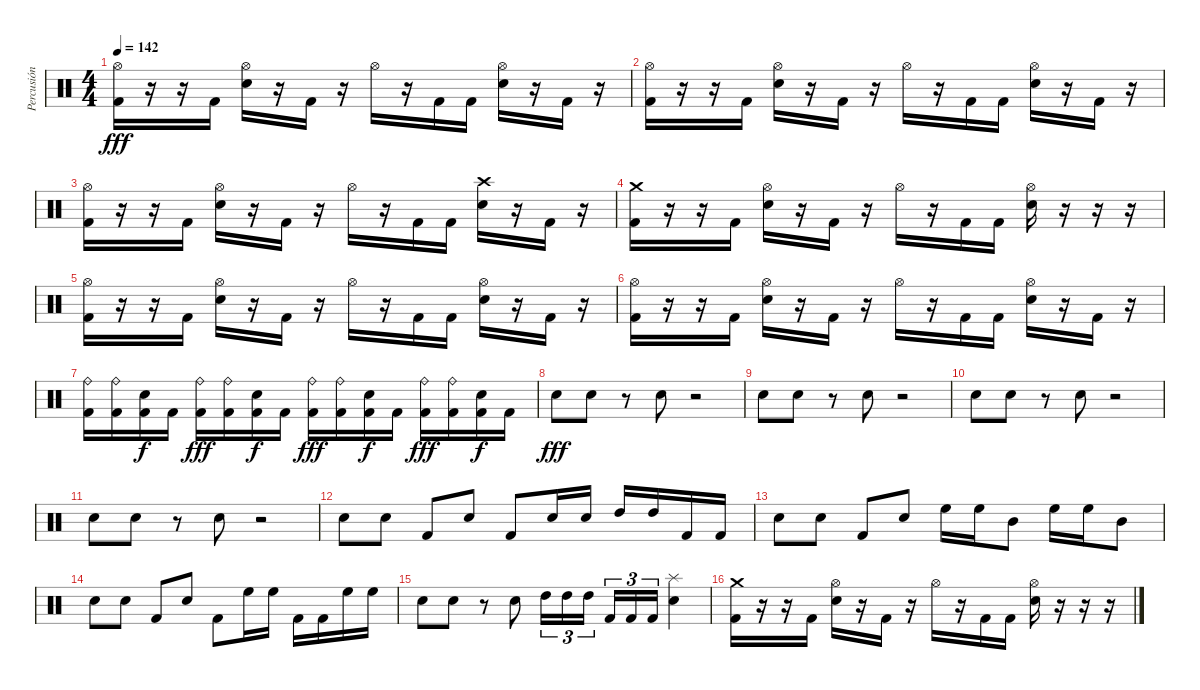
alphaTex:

\track ("Percusión" "Percusión") {instrument percussion}
\staff {score}
\articulation defaults
\ts (4 4)
\tempo 142
\clef neutral
\ks c
("Hi-Hat (open)" "Kick (hit) 2").16{dy fff} r.16 r.16 "Kick (hit) 2".16 ("Hi-Hat (open)" "Electric Snare (hit)").16 r.16 "Kick (hit) 2".16 r.16 "Hi-Hat (open)".16 r.16 "Kick (hit) 2".16 "Kick (hit) 2".16 ("Hi-Hat (open)" "Electric Snare (hit)").16 r.16 "Kick (hit) 2".16 r.16 |
("Hi-Hat (open)" "Kick (hit) 2").16 r.16 r.16 "Kick (hit) 2".16 ("Hi-Hat (open)" "Electric Snare (hit)").16 r.16 "Kick (hit) 2".16 r.16 "Hi-Hat (open)".16 r.16 "Kick (hit) 2".16 "Kick (hit) 2".16 ("Hi-Hat (open)" "Electric Snare (hit)").16 r.16 "Kick (hit) 2".16 r.16 |
("Hi-Hat (open)" "Kick (hit) 2").16 r.16 r.16 "Kick (hit) 2".16 ("Hi-Hat (open)" "Electric Snare (hit)").16 r.16 "Kick (hit) 2".16 r.16 "Hi-Hat (open)".16 r.16 "Kick (hit) 2".16 "Kick (hit) 2".16 ("Crash high (hit)" "Electric Snare (hit)").16 r.16 "Kick (hit) 2".16 r.16 |
("Crash medium (hit)" "Kick (hit) 2").16 r.16 r.16 "Kick (hit) 2".16 ("Hi-Hat (open)" "Electric Snare (hit)").16 r.16 "Kick (hit) 2".16 r.16 "Hi-Hat (open)".16 r.16 "Kick (hit) 2".16 "Kick (hit) 2".16 ("Hi-Hat (open)" "Electric Snare (hit)").16 r.16 r.16 r.16 |
("Hi-Hat (open)" "Kick (hit) 2").16 r.16 r.16 "Kick (hit) 2".16 ("Hi-Hat (open)" "Electric Snare (hit)").16 r.16 "Kick (hit) 2".16 r.16 "Hi-Hat (open)".16 r.16 "Kick (hit) 2".16 "Kick (hit) 2".16 ("Hi-Hat (open)" "Electric Snare (hit)").16 r.16 "Kick (hit) 2".16 r.16 |
("Hi-Hat (open)" "Kick (hit) 2").16 r.16 r.16 "Kick (hit) 2".16 ("Hi-Hat (open)" "Electric Snare (hit)").16 r.16 "Kick (hit) 2".16 r.16 "Hi-Hat (open)".16 r.16 "Kick (hit) 2".16 "Kick (hit) 2".16 ("Hi-Hat (open)" "Electric Snare (hit)").16 r.16 "Kick (hit) 2".16 r.16 |
("Ride (bell)" "Kick (hit) 2").16 ("Ride (bell)" "Kick (hit) 2").16 ("Electric Snare (hit)" "Kick (hit) 2").16{dy f} "Kick (hit) 2".16 ("Ride (bell)" "Kick (hit) 2").16{dy fff} ("Ride (bell)" "Kick (hit) 2").16 ("Electric Snare (hit)" "Kick (hit) 2").16{dy f} "Kick (hit) 2".16 ("Ride (bell)" "Kick (hit) 2").16{dy fff} ("Ride (bell)" "Kick (hit) 2").16 ("Electric Snare (hit)" "Kick (hit) 2").16{dy f} "Kick (hit) 2".16 ("Ride (bell)" "Kick (hit) 2").16{dy fff} ("Ride (bell)" "Kick (hit) 2").16 ("Electric Snare (hit)" "Kick (hit) 2").16{dy f} "Kick (hit) 2".16 |
"Electric Snare (hit)".8{dy fff} "Electric Snare (hit)".8 r.8 "Electric Snare (hit)".8 r.2 |
"Electric Snare (hit)".8 "Electric Snare (hit)".8 r.8 "Electric Snare (hit)".8 r.2 |
"Electric Snare (hit)".8 "Electric Snare (hit)".8 r.8 "Electric Snare (hit)".8 r.2 |
"Electric Snare (hit)".8 "Electric Snare (hit)".8 r.8 "Electric Snare (hit)".8 r.2 |
"Electric Snare (hit)".8 "Electric Snare (hit)".8 "Kick (hit) 2".8 "Electric Snare (hit)".8 "Kick (hit) 2".8 "Electric Snare (hit)".16 "Electric Snare (hit)".16 "High Tom (hit)".16 "High Tom (hit)".16 "Kick (hit) 2".16 "Kick (hit) 2".16 |
"Electric Snare (hit)".8 "Electric Snare (hit)".8 "Kick (hit) 2".8 "Electric Snare (hit)".8 "High Floor Tom (hit)".16 "High Floor Tom (hit)".16 "Mid Tom (hit)".8 "High Floor Tom (hit)".16 "High Floor Tom (hit)".16 "Mid Tom (hit)".8 |
"Electric Snare (hit)".8 "Electric Snare (hit)".8 "Kick (hit) 2".8 "Electric Snare (hit)".8 "Kick (hit) 2".8 "High Floor Tom (hit)".16 "High Floor Tom (hit)".16 "Kick (hit) 2".16 "Kick (hit) 2".16 "High Floor Tom (hit)".16 "High Floor Tom (hit)".16 |
"Electric Snare (hit)".8 "Electric Snare (hit)".8 r.8 "Electric Snare (hit)".8 "High Tom (hit)".16{tu (3 2)} "High Tom (hit)".16{tu (3 2)} "High Tom (hit)".16{tu (3 2) beam splitsecondary} "Kick (hit) 2".16{tu (3 2)} "Kick (hit) 2".16{tu (3 2)} "Kick (hit) 2".16{tu (3 2)} ("Splash (hit)" "Electric Snare (hit)").4 |
("Crash medium (hit)" "Kick (hit) 2").16 r.16 r.16 "Kick (hit) 2".16 ("Hi-Hat (open)" "Electric Snare (hit)").16 r.16 "Kick (hit) 2".16 r.16 "Hi-Hat (open)".16 r.16 "Kick (hit) 2".16 "Kick (hit) 2".16 ("Hi-Hat (open)" "Electric Snare (hit)").16 r.16 r.16 r.16
